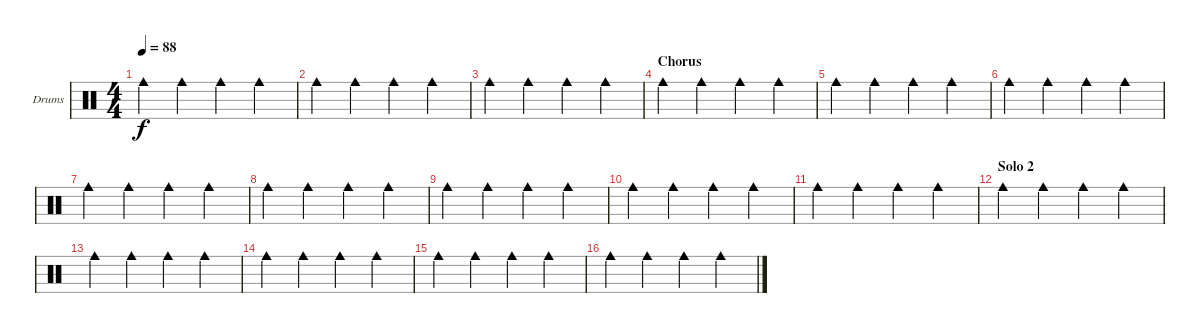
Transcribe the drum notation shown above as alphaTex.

\bracketExtendMode groupsimilarinstruments
\firstSystemTrackNameOrientation horizontal
\otherSystemsTrackNameOrientation horizontal
\track ("Bell" "Drums") {instrument percussion}
\staff {score}
\articulation defaults
\ts (4 4)
\tempo 88
\clef neutral
\ks c "Cowbell medium (hit)".4{dy f} "Cowbell medium (hit)".4 "Cowbell medium (hit)".4 "Cowbell medium (hit)".4
|
"Cowbell medium (hit)".4 "Cowbell medium (hit)".4 "Cowbell medium (hit)".4 "Cowbell medium (hit)".4 |
"Cowbell medium (hit)".4 "Cowbell medium (hit)".4 "Cowbell medium (hit)".4 "Cowbell medium (hit)".4 |
\section ("" "Chorus")
"Cowbell medium (hit)".4 "Cowbell medium (hit)".4 "Cowbell medium (hit)".4 "Cowbell medium (hit)".4 |
"Cowbell medium (hit)".4 "Cowbell medium (hit)".4 "Cowbell medium (hit)".4 "Cowbell medium (hit)".4 |
"Cowbell medium (hit)".4 "Cowbell medium (hit)".4 "Cowbell medium (hit)".4 "Cowbell medium (hit)".4 |
"Cowbell medium (hit)".4 "Cowbell medium (hit)".4 "Cowbell medium (hit)".4 "Cowbell medium (hit)".4 |
"Cowbell medium (hit)".4 "Cowbell medium (hit)".4 "Cowbell medium (hit)".4 "Cowbell medium (hit)".4 |
"Cowbell medium (hit)".4 "Cowbell medium (hit)".4 "Cowbell medium (hit)".4 "Cowbell medium (hit)".4 |
"Cowbell medium (hit)".4 "Cowbell medium (hit)".4 "Cowbell medium (hit)".4 "Cowbell medium (hit)".4 |
"Cowbell medium (hit)".4 "Cowbell medium (hit)".4 "Cowbell medium (hit)".4 "Cowbell medium (hit)".4 |
\section ("" "Solo 2")
"Cowbell medium (hit)".4 "Cowbell medium (hit)".4 "Cowbell medium (hit)".4 "Cowbell medium (hit)".4 |
"Cowbell medium (hit)".4 "Cowbell medium (hit)".4 "Cowbell medium (hit)".4 "Cowbell medium (hit)".4 |
"Cowbell medium (hit)".4 "Cowbell medium (hit)".4 "Cowbell medium (hit)".4 "Cowbell medium (hit)".4 |
"Cowbell medium (hit)".4 "Cowbell medium (hit)".4 "Cowbell medium (hit)".4 "Cowbell medium (hit)".4 |
"Cowbell medium (hit)".4 "Cowbell medium (hit)".4 "Cowbell medium (hit)".4 "Cowbell medium (hit)".4
